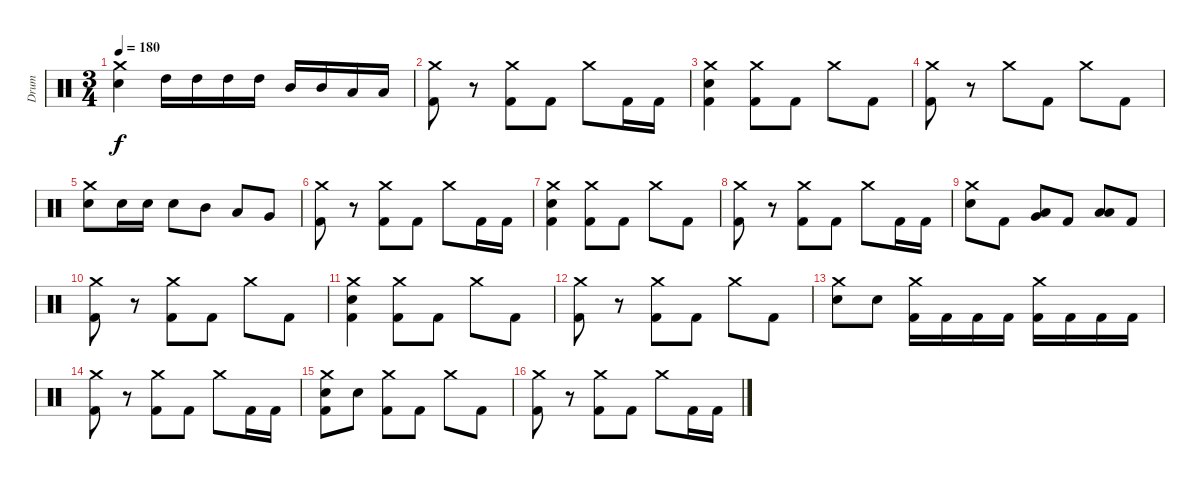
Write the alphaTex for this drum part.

\track ("Drum" "Drum") {instrument percussion}
\staff {score}
\articulation defaults
\ts (3 4)
\tempo 180
\clef neutral
\ks c
("Crash medium (hit)" "Snare (hit) 2").4{dy f} "High Tom (hit)".16 "High Tom (hit)".16 "High Tom (hit)".16 "High Tom (hit)".16 "Mid Tom (hit)".16 "Mid Tom (hit)".16 "Low Tom (hit)".16 "Low Tom (hit)".16 |
("Crash medium (hit)" "Kick (hit) 2").8 r.8 ("Crash medium (hit)" "Kick (hit) 2").8 "Kick (hit) 2".8 "Crash medium (hit)".8 "Kick (hit) 2".16 "Kick (hit) 2".16 |
("Crash medium (hit)" "Snare (hit) 2" "Kick (hit) 2").4 ("Crash medium (hit)" "Kick (hit) 2").8 "Kick (hit) 2".8 "Crash medium (hit)".8 "Kick (hit) 2".8 |
("Crash medium (hit)" "Kick (hit) 2").8 r.8 "Crash medium (hit)".8 "Kick (hit) 2".8 "Crash medium (hit)".8 "Kick (hit) 2".8 |
("Crash medium (hit)" "Snare (hit) 2").8 "Snare (hit) 2".16 "Snare (hit) 2".16 "Snare (hit) 2".8 "Mid Tom (hit)".8 "Low Tom (hit)".8 "Very Low Tom (hit)".8 |
("Crash medium (hit)" "Kick (hit) 2").8 r.8 ("Crash medium (hit)" "Kick (hit) 2").8 "Kick (hit) 2".8 "Crash medium (hit)".8 "Kick (hit) 2".16 "Kick (hit) 2".16 |
("Crash medium (hit)" "Snare (hit) 2" "Kick (hit) 2").4 ("Crash medium (hit)" "Kick (hit) 2").8 "Kick (hit) 2".8 "Crash medium (hit)".8 "Kick (hit) 2".8 |
("Crash medium (hit)" "Kick (hit) 2").8 r.8 ("Crash medium (hit)" "Kick (hit) 2").8 "Kick (hit) 2".8 "Crash medium (hit)".8 "Kick (hit) 2".16 "Kick (hit) 2".16 |
("Crash medium (hit)" "Snare (hit) 2").8 "Kick (hit) 2".8 ("Low Tom (hit)" "Very Low Tom (hit)").8 "Kick (hit) 2".8 ("Low Tom (hit)" "Low Floor Tom (hit)").8 "Kick (hit) 2".8 |
("Crash medium (hit)" "Kick (hit) 2").8 r.8 ("Crash medium (hit)" "Kick (hit) 2").8 "Kick (hit) 2".8 "Crash medium (hit)".8 "Kick (hit) 2".8 |
("Crash medium (hit)" "Snare (hit) 2" "Kick (hit) 2").4 ("Crash medium (hit)" "Kick (hit) 2").8 "Kick (hit) 2".8 "Crash medium (hit)".8 "Kick (hit) 2".8 |
("Crash medium (hit)" "Kick (hit) 2").8 r.8 ("Crash medium (hit)" "Kick (hit) 2").8 "Kick (hit) 2".8 "Crash medium (hit)".8 "Kick (hit) 2".8 |
("Crash medium (hit)" "Snare (hit) 2").8 "Snare (hit) 2".8 ("Crash medium (hit)" "Kick (hit) 2").16 "Kick (hit) 2".16 "Kick (hit) 2".16 "Kick (hit) 2".16 ("Crash medium (hit)" "Kick (hit) 2").16 "Kick (hit) 2".16 "Kick (hit) 2".16 "Kick (hit) 2".16 |
("Crash medium (hit)" "Kick (hit) 2").8 r.8 ("Crash medium (hit)" "Kick (hit) 2").8 "Kick (hit) 2".8 "Crash medium (hit)".8 "Kick (hit) 2".16 "Kick (hit) 2".16 |
("Crash medium (hit)" "Snare (hit) 2" "Kick (hit) 2").8 "Snare (hit) 2".8 ("Crash medium (hit)" "Kick (hit) 2").8 "Kick (hit) 2".8 "Crash medium (hit)".8 "Kick (hit) 2".8 |
("Crash medium (hit)" "Kick (hit) 2").8 r.8 ("Crash medium (hit)" "Kick (hit) 2").8 "Kick (hit) 2".8 "Crash medium (hit)".8 "Kick (hit) 2".16 "Kick (hit) 2".16
